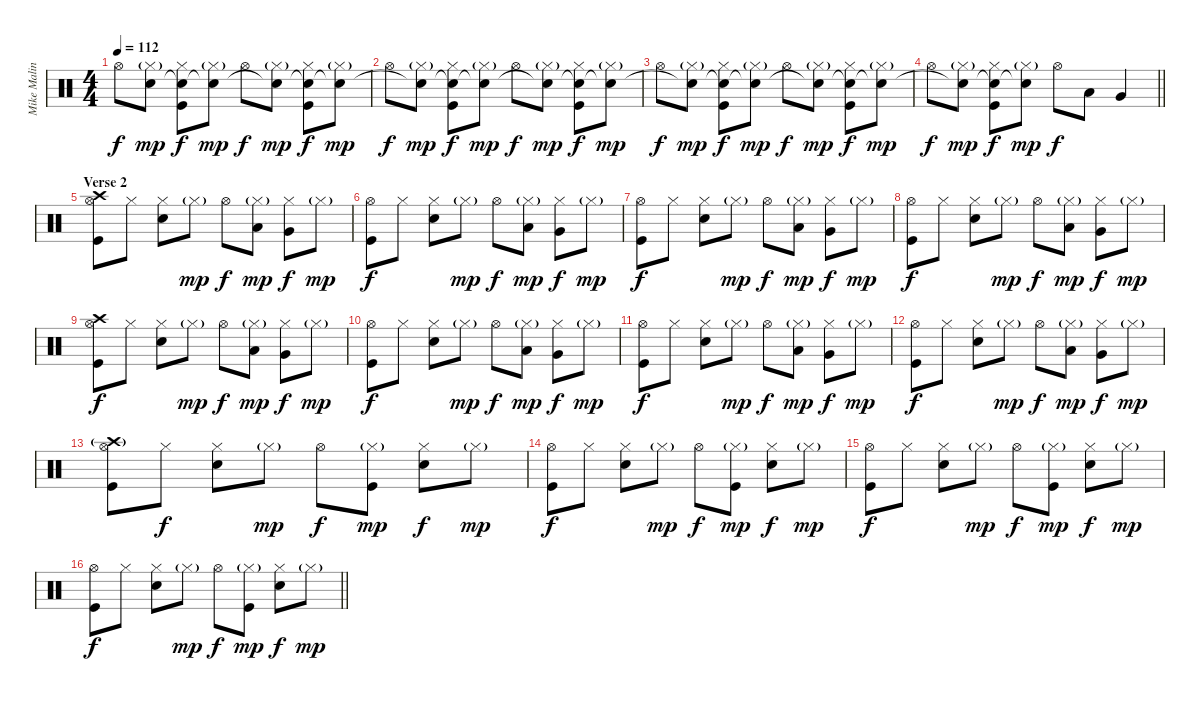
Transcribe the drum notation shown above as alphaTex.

\track ("Mike Malinin - Percussion" "Mike Malin") {instrument percussion}
\staff {score}
\articulation defaults
\ts (4 4)
\tempo 112
\clef neutral
\ks c "Hi-Hat (open)".8{dy f}
("Hi-Hat (closed)"{g} "Snare (hit)"{t}).8{dy mp} ("Hi-Hat (closed)" "Snare (hit)"{t} "Kick (hit)").8{dy f} ("Hi-Hat (closed)"{g} "Snare (hit)"{t}).8{dy mp} "Hi-Hat (open)".8{dy f} ("Hi-Hat (closed)"{g} "Snare (hit)"{t}).8{dy mp} ("Hi-Hat (closed)" "Snare (hit)"{t} "Kick (hit)").8{dy f} ("Hi-Hat (closed)"{g} "Snare (hit)"{t}).8{dy mp} |
"Hi-Hat (open)".8{dy f} ("Hi-Hat (closed)"{g} "Snare (hit)"{t}).8{dy mp} ("Hi-Hat (closed)" "Snare (hit)"{t} "Kick (hit)").8{dy f} ("Hi-Hat (closed)"{g} "Snare (hit)"{t}).8{dy mp} "Hi-Hat (open)".8{dy f} ("Hi-Hat (closed)"{g} "Snare (hit)"{t}).8{dy mp} ("Hi-Hat (closed)" "Snare (hit)"{t} "Kick (hit)").8{dy f} ("Hi-Hat (closed)"{g} "Snare (hit)"{t}).8{dy mp} |
"Hi-Hat (open)".8{dy f} ("Hi-Hat (closed)"{g} "Snare (hit)"{t}).8{dy mp} ("Hi-Hat (closed)" "Snare (hit)"{t} "Kick (hit)").8{dy f} ("Hi-Hat (closed)"{g} "Snare (hit)"{t}).8{dy mp} "Hi-Hat (open)".8{dy f} ("Hi-Hat (closed)"{g} "Snare (hit)"{t}).8{dy mp} ("Hi-Hat (closed)" "Snare (hit)"{t} "Kick (hit)").8{dy f} ("Hi-Hat (closed)"{g} "Snare (hit)"{t}).8{dy mp} |
\barLineRight lightlight "Hi-Hat (open)".8{dy f}
("Hi-Hat (closed)"{g} "Snare (hit)"{t}).8{dy mp} ("Hi-Hat (closed)" "Snare (hit)"{t} "Kick (hit)").8{dy f} ("Hi-Hat (closed)"{g} "Snare (hit)"{t}).8{dy mp} "Hi-Hat (open)".8{dy f} "Low Tom (hit)".8 "Very Low Tom (hit)".4 |
\section ("" "Verse 2")
("Hi-Hat (open)" "Crash high (hit)" "Kick (hit)").8 "Hi-Hat (closed)".8 ("Hi-Hat (closed)" "Snare (hit) 2").8 "Hi-Hat (closed)"{g}.8{dy mp} "Hi-Hat (open)".8{dy f} ("Hi-Hat (closed)"{g} "Low Tom (hit)").8{dy mp} ("Hi-Hat (closed)" "Very Low Tom (hit)").8{dy f} "Hi-Hat (closed)"{g}.8{dy mp} |
("Hi-Hat (open)" "Kick (hit)").8{dy f} "Hi-Hat (closed)".8 ("Hi-Hat (closed)" "Snare (hit) 2").8 "Hi-Hat (closed)"{g}.8{dy mp} "Hi-Hat (open)".8{dy f} ("Hi-Hat (closed)"{g} "Low Tom (hit)").8{dy mp} ("Hi-Hat (closed)" "Very Low Tom (hit)").8{dy f} "Hi-Hat (closed)"{g}.8{dy mp} |
("Hi-Hat (open)" "Kick (hit)").8{dy f} "Hi-Hat (closed)".8 ("Hi-Hat (closed)" "Snare (hit) 2").8 "Hi-Hat (closed)"{g}.8{dy mp} "Hi-Hat (open)".8{dy f} ("Hi-Hat (closed)"{g} "Low Tom (hit)").8{dy mp} ("Hi-Hat (closed)" "Very Low Tom (hit)").8{dy f} "Hi-Hat (closed)"{g}.8{dy mp} |
("Hi-Hat (open)" "Kick (hit)").8{dy f} "Hi-Hat (closed)".8 ("Hi-Hat (closed)" "Snare (hit) 2").8 "Hi-Hat (closed)"{g}.8{dy mp} "Hi-Hat (open)".8{dy f} ("Hi-Hat (closed)"{g} "Low Tom (hit)").8{dy mp} ("Hi-Hat (closed)" "Very Low Tom (hit)").8{dy f} "Hi-Hat (closed)"{g}.8{dy mp} |
("Hi-Hat (open)" "Crash high (hit)" "Kick (hit)").8{dy f} "Hi-Hat (closed)".8 ("Hi-Hat (closed)" "Snare (hit) 2").8 "Hi-Hat (closed)"{g}.8{dy mp} "Hi-Hat (open)".8{dy f} ("Hi-Hat (closed)"{g} "Low Tom (hit)").8{dy mp} ("Hi-Hat (closed)" "Very Low Tom (hit)").8{dy f} "Hi-Hat (closed)"{g}.8{dy mp} |
("Hi-Hat (open)" "Kick (hit)").8{dy f} "Hi-Hat (closed)".8 ("Hi-Hat (closed)" "Snare (hit) 2").8 "Hi-Hat (closed)"{g}.8{dy mp} "Hi-Hat (open)".8{dy f} ("Hi-Hat (closed)"{g} "Low Tom (hit)").8{dy mp} ("Hi-Hat (closed)" "Very Low Tom (hit)").8{dy f} "Hi-Hat (closed)"{g}.8{dy mp} |
("Hi-Hat (open)" "Kick (hit)").8{dy f} "Hi-Hat (closed)".8 ("Hi-Hat (closed)" "Snare (hit) 2").8 "Hi-Hat (closed)"{g}.8{dy mp} "Hi-Hat (open)".8{dy f} ("Hi-Hat (closed)"{g} "Low Tom (hit)").8{dy mp} ("Hi-Hat (closed)" "Very Low Tom (hit)").8{dy f} "Hi-Hat (closed)"{g}.8{dy mp} |
("Hi-Hat (open)" "Kick (hit)").8{dy f} "Hi-Hat (closed)".8 ("Hi-Hat (closed)" "Snare (hit) 2").8 "Hi-Hat (closed)"{g}.8{dy mp} "Hi-Hat (open)".8{dy f} ("Hi-Hat (closed)"{g} "Low Tom (hit)").8{dy mp} ("Hi-Hat (closed)" "Very Low Tom (hit)").8{dy f} "Hi-Hat (closed)"{g}.8{dy mp} |
("Hi-Hat (open)" "Crash high (hit)"{g} "Kick (hit)").8 "Hi-Hat (closed)".8{dy f} ("Hi-Hat (closed)" "Snare (hit) 2").8 "Hi-Hat (closed)"{g}.8{dy mp} "Hi-Hat (open)".8{dy f} ("Hi-Hat (closed)"{g} "Kick (hit)").8{dy mp} ("Hi-Hat (closed)" "Snare (hit) 2").8{dy f} "Hi-Hat (closed)"{g}.8{dy mp} |
("Hi-Hat (open)" "Kick (hit)").8{dy f} "Hi-Hat (closed)".8 ("Hi-Hat (closed)" "Snare (hit) 2").8 "Hi-Hat (closed)"{g}.8{dy mp} "Hi-Hat (open)".8{dy f} ("Hi-Hat (closed)"{g} "Kick (hit)").8{dy mp} ("Hi-Hat (closed)" "Snare (hit) 2").8{dy f} "Hi-Hat (closed)"{g}.8{dy mp} |
("Hi-Hat (open)" "Kick (hit)").8{dy f} "Hi-Hat (closed)".8 ("Hi-Hat (closed)" "Snare (hit) 2").8 "Hi-Hat (closed)"{g}.8{dy mp} "Hi-Hat (open)".8{dy f} ("Hi-Hat (closed)"{g} "Kick (hit)").8{dy mp} ("Hi-Hat (closed)" "Snare (hit) 2").8{dy f} "Hi-Hat (closed)"{g}.8{dy mp} |
\barLineRight lightlight
("Hi-Hat (open)" "Kick (hit)").8{dy f} "Hi-Hat (closed)".8 ("Hi-Hat (closed)" "Snare (hit) 2").8 "Hi-Hat (closed)"{g}.8{dy mp} "Hi-Hat (open)".8{dy f} ("Hi-Hat (closed)"{g} "Kick (hit)").8{dy mp} ("Hi-Hat (closed)" "Snare (hit) 2").8{dy f} "Hi-Hat (closed)"{g}.8{dy mp}
